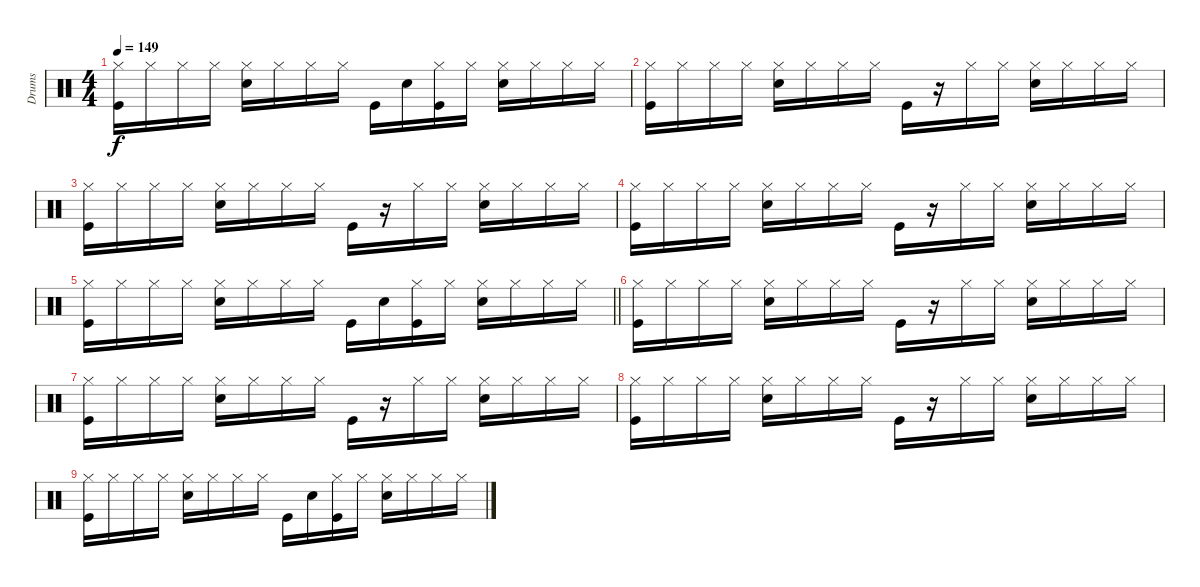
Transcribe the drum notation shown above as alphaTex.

\track ("Drums" "Drums") {instrument percussion}
\staff {score}
\articulation defaults
\ts (4 4)
\tempo 149
\clef neutral
\ks c
("Hi-Hat (closed)" "Kick (hit)").16{dy f} "Hi-Hat (closed)".16 "Hi-Hat (closed)".16 "Hi-Hat (closed)".16 ("Hi-Hat (closed)" "Snare (hit) 2").16 "Hi-Hat (closed)".16 "Hi-Hat (closed)".16 "Hi-Hat (closed)".16 "Kick (hit)".16 "Snare (hit) 2".16 ("Hi-Hat (closed)" "Kick (hit)").16 "Hi-Hat (closed)".16 ("Hi-Hat (closed)" "Snare (hit) 2").16 "Hi-Hat (closed)".16 "Hi-Hat (closed)".16 "Hi-Hat (closed)".16 |
("Hi-Hat (closed)" "Kick (hit)").16 "Hi-Hat (closed)".16 "Hi-Hat (closed)".16 "Hi-Hat (closed)".16 ("Hi-Hat (closed)" "Snare (hit) 2").16 "Hi-Hat (closed)".16 "Hi-Hat (closed)".16 "Hi-Hat (closed)".16 "Kick (hit)".16 r.16 "Hi-Hat (closed)".16 "Hi-Hat (closed)".16 ("Hi-Hat (closed)" "Snare (hit) 2").16 "Hi-Hat (closed)".16 "Hi-Hat (closed)".16 "Hi-Hat (closed)".16 |
("Hi-Hat (closed)" "Kick (hit)").16 "Hi-Hat (closed)".16 "Hi-Hat (closed)".16 "Hi-Hat (closed)".16 ("Hi-Hat (closed)" "Snare (hit) 2").16 "Hi-Hat (closed)".16 "Hi-Hat (closed)".16 "Hi-Hat (closed)".16 "Kick (hit)".16 r.16 "Hi-Hat (closed)".16 "Hi-Hat (closed)".16 ("Hi-Hat (closed)" "Snare (hit) 2").16 "Hi-Hat (closed)".16 "Hi-Hat (closed)".16 "Hi-Hat (closed)".16 |
("Hi-Hat (closed)" "Kick (hit)").16 "Hi-Hat (closed)".16 "Hi-Hat (closed)".16 "Hi-Hat (closed)".16 ("Hi-Hat (closed)" "Snare (hit) 2").16 "Hi-Hat (closed)".16 "Hi-Hat (closed)".16 "Hi-Hat (closed)".16 "Kick (hit)".16 r.16 "Hi-Hat (closed)".16 "Hi-Hat (closed)".16 ("Hi-Hat (closed)" "Snare (hit) 2").16 "Hi-Hat (closed)".16 "Hi-Hat (closed)".16 "Hi-Hat (closed)".16 |
\barLineRight lightlight
("Hi-Hat (closed)" "Kick (hit)").16 "Hi-Hat (closed)".16 "Hi-Hat (closed)".16 "Hi-Hat (closed)".16 ("Hi-Hat (closed)" "Snare (hit) 2").16 "Hi-Hat (closed)".16 "Hi-Hat (closed)".16 "Hi-Hat (closed)".16 "Kick (hit)".16 "Snare (hit) 2".16 ("Hi-Hat (closed)" "Kick (hit)").16 "Hi-Hat (closed)".16 ("Hi-Hat (closed)" "Snare (hit) 2").16 "Hi-Hat (closed)".16 "Hi-Hat (closed)".16 "Hi-Hat (closed)".16 |
("Hi-Hat (closed)" "Kick (hit)").16 "Hi-Hat (closed)".16 "Hi-Hat (closed)".16 "Hi-Hat (closed)".16 ("Hi-Hat (closed)" "Snare (hit) 2").16 "Hi-Hat (closed)".16 "Hi-Hat (closed)".16 "Hi-Hat (closed)".16 "Kick (hit)".16 r.16 "Hi-Hat (closed)".16 "Hi-Hat (closed)".16 ("Hi-Hat (closed)" "Snare (hit) 2").16 "Hi-Hat (closed)".16 "Hi-Hat (closed)".16 "Hi-Hat (closed)".16 |
("Hi-Hat (closed)" "Kick (hit)").16 "Hi-Hat (closed)".16 "Hi-Hat (closed)".16 "Hi-Hat (closed)".16 ("Hi-Hat (closed)" "Snare (hit) 2").16 "Hi-Hat (closed)".16 "Hi-Hat (closed)".16 "Hi-Hat (closed)".16 "Kick (hit)".16 r.16 "Hi-Hat (closed)".16 "Hi-Hat (closed)".16 ("Hi-Hat (closed)" "Snare (hit) 2").16 "Hi-Hat (closed)".16 "Hi-Hat (closed)".16 "Hi-Hat (closed)".16 |
("Hi-Hat (closed)" "Kick (hit)").16 "Hi-Hat (closed)".16 "Hi-Hat (closed)".16 "Hi-Hat (closed)".16 ("Hi-Hat (closed)" "Snare (hit) 2").16 "Hi-Hat (closed)".16 "Hi-Hat (closed)".16 "Hi-Hat (closed)".16 "Kick (hit)".16 r.16 "Hi-Hat (closed)".16 "Hi-Hat (closed)".16 ("Hi-Hat (closed)" "Snare (hit) 2").16 "Hi-Hat (closed)".16 "Hi-Hat (closed)".16 "Hi-Hat (closed)".16 |
("Hi-Hat (closed)" "Kick (hit)").16 "Hi-Hat (closed)".16 "Hi-Hat (closed)".16 "Hi-Hat (closed)".16 ("Hi-Hat (closed)" "Snare (hit) 2").16 "Hi-Hat (closed)".16 "Hi-Hat (closed)".16 "Hi-Hat (closed)".16 "Kick (hit)".16 "Snare (hit) 2".16 ("Hi-Hat (closed)" "Kick (hit)").16 "Hi-Hat (closed)".16 ("Hi-Hat (closed)" "Snare (hit) 2").16 "Hi-Hat (closed)".16 "Hi-Hat (closed)".16 "Hi-Hat (closed)".16
